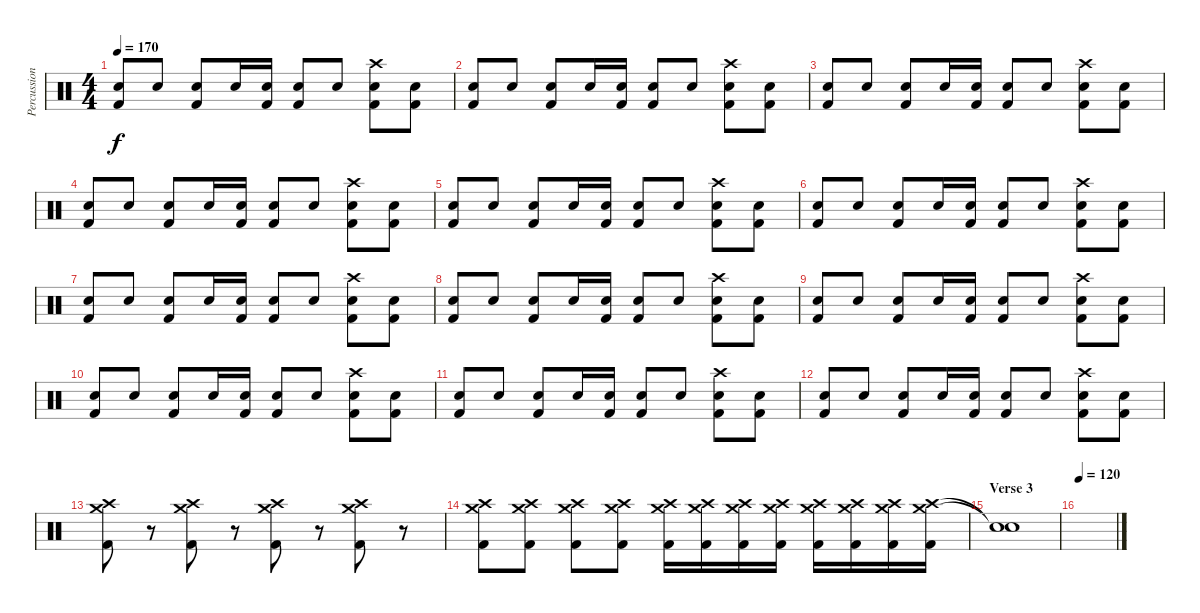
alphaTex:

\track ("Percussion" "Percussion") {instrument percussion}
\staff {score}
\articulation defaults
\ts (4 4)
\tempo 170
\clef neutral
\ks c
("Snare (hit) 2" "Kick (hit) 2").8{dy f} "Snare (hit) 2".8 ("Snare (hit) 2" "Kick (hit) 2").8 "Snare (hit) 2".16 ("Snare (hit) 2" "Kick (hit) 2").16 ("Snare (hit) 2" "Kick (hit) 2").8 "Snare (hit) 2".8 ("Crash high (hit)" "Snare (hit) 2" "Kick (hit) 2").8 ("Snare (hit) 2" "Kick (hit) 2").8 |
("Snare (hit) 2" "Kick (hit) 2").8 "Snare (hit) 2".8 ("Snare (hit) 2" "Kick (hit) 2").8 "Snare (hit) 2".16 ("Snare (hit) 2" "Kick (hit) 2").16 ("Snare (hit) 2" "Kick (hit) 2").8 "Snare (hit) 2".8 ("Crash high (hit)" "Snare (hit) 2" "Kick (hit) 2").8 ("Snare (hit) 2" "Kick (hit) 2").8 |
("Snare (hit) 2" "Kick (hit) 2").8 "Snare (hit) 2".8 ("Snare (hit) 2" "Kick (hit) 2").8 "Snare (hit) 2".16 ("Snare (hit) 2" "Kick (hit) 2").16 ("Snare (hit) 2" "Kick (hit) 2").8 "Snare (hit) 2".8 ("Crash high (hit)" "Snare (hit) 2" "Kick (hit) 2").8 ("Snare (hit) 2" "Kick (hit) 2").8 |
("Snare (hit) 2" "Kick (hit) 2").8 "Snare (hit) 2".8 ("Snare (hit) 2" "Kick (hit) 2").8 "Snare (hit) 2".16 ("Snare (hit) 2" "Kick (hit) 2").16 ("Snare (hit) 2" "Kick (hit) 2").8 "Snare (hit) 2".8 ("Crash high (hit)" "Snare (hit) 2" "Kick (hit) 2").8 ("Snare (hit) 2" "Kick (hit) 2").8 |
("Snare (hit) 2" "Kick (hit) 2").8 "Snare (hit) 2".8 ("Snare (hit) 2" "Kick (hit) 2").8 "Snare (hit) 2".16 ("Snare (hit) 2" "Kick (hit) 2").16 ("Snare (hit) 2" "Kick (hit) 2").8 "Snare (hit) 2".8 ("Crash high (hit)" "Snare (hit) 2" "Kick (hit) 2").8 ("Snare (hit) 2" "Kick (hit) 2").8 |
("Snare (hit) 2" "Kick (hit) 2").8 "Snare (hit) 2".8 ("Snare (hit) 2" "Kick (hit) 2").8 "Snare (hit) 2".16 ("Snare (hit) 2" "Kick (hit) 2").16 ("Snare (hit) 2" "Kick (hit) 2").8 "Snare (hit) 2".8 ("Crash high (hit)" "Snare (hit) 2" "Kick (hit) 2").8 ("Snare (hit) 2" "Kick (hit) 2").8 |
("Snare (hit) 2" "Kick (hit) 2").8 "Snare (hit) 2".8 ("Snare (hit) 2" "Kick (hit) 2").8 "Snare (hit) 2".16 ("Snare (hit) 2" "Kick (hit) 2").16 ("Snare (hit) 2" "Kick (hit) 2").8 "Snare (hit) 2".8 ("Crash high (hit)" "Snare (hit) 2" "Kick (hit) 2").8 ("Snare (hit) 2" "Kick (hit) 2").8 |
("Snare (hit) 2" "Kick (hit) 2").8 "Snare (hit) 2".8 ("Snare (hit) 2" "Kick (hit) 2").8 "Snare (hit) 2".16 ("Snare (hit) 2" "Kick (hit) 2").16 ("Snare (hit) 2" "Kick (hit) 2").8 "Snare (hit) 2".8 ("Crash high (hit)" "Snare (hit) 2" "Kick (hit) 2").8 ("Snare (hit) 2" "Kick (hit) 2").8 |
("Snare (hit) 2" "Kick (hit) 2").8 "Snare (hit) 2".8 ("Snare (hit) 2" "Kick (hit) 2").8 "Snare (hit) 2".16 ("Snare (hit) 2" "Kick (hit) 2").16 ("Snare (hit) 2" "Kick (hit) 2").8 "Snare (hit) 2".8 ("Crash high (hit)" "Snare (hit) 2" "Kick (hit) 2").8 ("Snare (hit) 2" "Kick (hit) 2").8 |
("Snare (hit) 2" "Kick (hit) 2").8 "Snare (hit) 2".8 ("Snare (hit) 2" "Kick (hit) 2").8 "Snare (hit) 2".16 ("Snare (hit) 2" "Kick (hit) 2").16 ("Snare (hit) 2" "Kick (hit) 2").8 "Snare (hit) 2".8 ("Crash high (hit)" "Snare (hit) 2" "Kick (hit) 2").8 ("Snare (hit) 2" "Kick (hit) 2").8 |
("Snare (hit) 2" "Kick (hit) 2").8 "Snare (hit) 2".8 ("Snare (hit) 2" "Kick (hit) 2").8 "Snare (hit) 2".16 ("Snare (hit) 2" "Kick (hit) 2").16 ("Snare (hit) 2" "Kick (hit) 2").8 "Snare (hit) 2".8 ("Crash high (hit)" "Snare (hit) 2" "Kick (hit) 2").8 ("Snare (hit) 2" "Kick (hit) 2").8 |
("Snare (hit) 2" "Kick (hit) 2").8 "Snare (hit) 2".8 ("Snare (hit) 2" "Kick (hit) 2").8 "Snare (hit) 2".16 ("Snare (hit) 2" "Kick (hit) 2").16 ("Snare (hit) 2" "Kick (hit) 2").8 "Snare (hit) 2".8 ("Crash high (hit)" "Snare (hit) 2" "Kick (hit) 2").8 ("Snare (hit) 2" "Kick (hit) 2").8 |
("Crash high (hit)" "Crash medium (hit)" "Kick (hit) 2").8 r.8 ("Crash high (hit)" "Crash medium (hit)" "Kick (hit) 2").8 r.8 ("Crash high (hit)" "Crash medium (hit)" "Kick (hit) 2").8 r.8 ("Crash high (hit)" "Crash medium (hit)" "Kick (hit) 2").8 r.8 |
("Crash high (hit)" "Crash medium (hit)" "Kick (hit) 2").8 ("Crash high (hit)" "Crash medium (hit)" "Kick (hit) 2").8 ("Crash high (hit)" "Crash medium (hit)" "Kick (hit) 2").8 ("Crash high (hit)" "Crash medium (hit)" "Kick (hit) 2").8 ("Crash high (hit)" "Crash medium (hit)" "Kick (hit) 2").16 ("Crash high (hit)" "Crash medium (hit)" "Kick (hit) 2").16 ("Crash high (hit)" "Crash medium (hit)" "Kick (hit) 2").16 ("Crash high (hit)" "Crash medium (hit)" "Kick (hit) 2").16 ("Crash high (hit)" "Crash medium (hit)" "Kick (hit) 2").16 ("Crash high (hit)" "Crash medium (hit)" "Kick (hit) 2").16 ("Crash high (hit)" "Crash medium (hit)" "Kick (hit) 2").16 ("Crash high (hit)" "Crash medium (hit)" "Kick (hit) 2").16 |
\section ("" "Verse 3")
("Snare (hit)"{t} "Snare (hit)"{t}).1 |
\tempo 120
